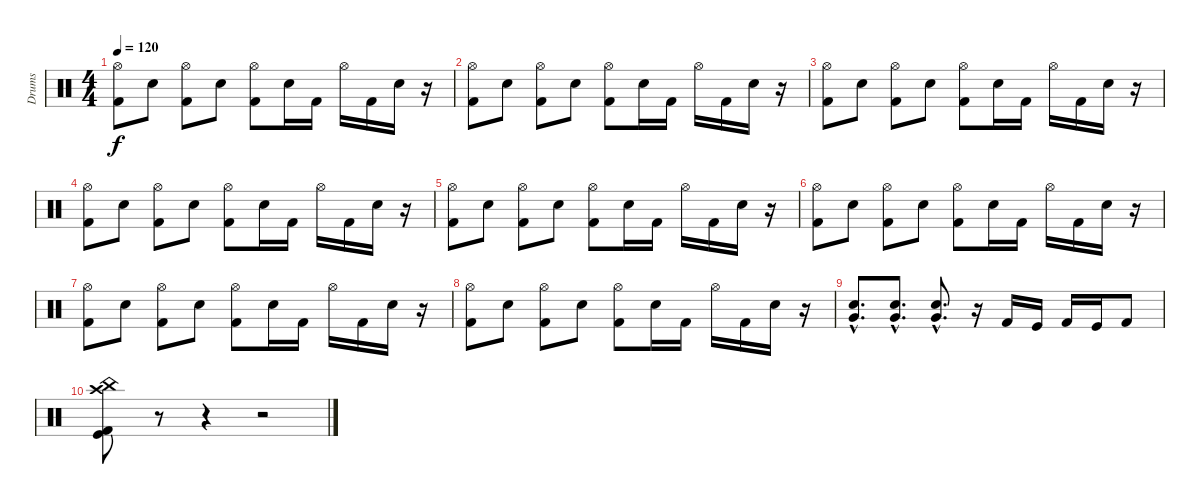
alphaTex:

\track ("Drums" "Drums") {instrument percussion}
\staff {score}
\articulation defaults
\ts (4 4)
\tempo 120
\clef neutral
\ks c
("Hi-Hat (open)" "Kick (hit) 2").8{dy f} "Snare (hit) 2".8 ("Hi-Hat (open)" "Kick (hit) 2").8 "Snare (hit) 2".8 ("Hi-Hat (open)" "Kick (hit) 2").8 "Snare (hit) 2".16 "Kick (hit) 2".16 "Hi-Hat (open)".16 "Kick (hit) 2".16 "Snare (hit) 2".16 r.16 |
("Hi-Hat (open)" "Kick (hit) 2").8 "Snare (hit) 2".8 ("Hi-Hat (open)" "Kick (hit) 2").8 "Snare (hit) 2".8 ("Hi-Hat (open)" "Kick (hit) 2").8 "Snare (hit) 2".16 "Kick (hit) 2".16 "Hi-Hat (open)".16 "Kick (hit) 2".16 "Snare (hit) 2".16 r.16 |
("Hi-Hat (open)" "Kick (hit) 2").8 "Snare (hit) 2".8 ("Hi-Hat (open)" "Kick (hit) 2").8 "Snare (hit) 2".8 ("Hi-Hat (open)" "Kick (hit) 2").8 "Snare (hit) 2".16 "Kick (hit) 2".16 "Hi-Hat (open)".16 "Kick (hit) 2".16 "Snare (hit) 2".16 r.16 |
("Hi-Hat (open)" "Kick (hit) 2").8 "Snare (hit) 2".8 ("Hi-Hat (open)" "Kick (hit) 2").8 "Snare (hit) 2".8 ("Hi-Hat (open)" "Kick (hit) 2").8 "Snare (hit) 2".16 "Kick (hit) 2".16 "Hi-Hat (open)".16 "Kick (hit) 2".16 "Snare (hit) 2".16 r.16 |
("Hi-Hat (open)" "Kick (hit) 2").8 "Snare (hit) 2".8 ("Hi-Hat (open)" "Kick (hit) 2").8 "Snare (hit) 2".8 ("Hi-Hat (open)" "Kick (hit) 2").8 "Snare (hit) 2".16 "Kick (hit) 2".16 "Hi-Hat (open)".16 "Kick (hit) 2".16 "Snare (hit) 2".16 r.16 |
("Hi-Hat (open)" "Kick (hit) 2").8 "Snare (hit) 2".8 ("Hi-Hat (open)" "Kick (hit) 2").8 "Snare (hit) 2".8 ("Hi-Hat (open)" "Kick (hit) 2").8 "Snare (hit) 2".16 "Kick (hit) 2".16 "Hi-Hat (open)".16 "Kick (hit) 2".16 "Snare (hit) 2".16 r.16 |
("Hi-Hat (open)" "Kick (hit) 2").8 "Snare (hit) 2".8 ("Hi-Hat (open)" "Kick (hit) 2").8 "Snare (hit) 2".8 ("Hi-Hat (open)" "Kick (hit) 2").8 "Snare (hit) 2".16 "Kick (hit) 2".16 "Hi-Hat (open)".16 "Kick (hit) 2".16 "Snare (hit) 2".16 r.16 |
("Hi-Hat (open)" "Kick (hit) 2").8 "Snare (hit) 2".8 ("Hi-Hat (open)" "Kick (hit) 2").8 "Snare (hit) 2".8 ("Hi-Hat (open)" "Kick (hit) 2").8 "Snare (hit) 2".16 "Kick (hit) 2".16 "Hi-Hat (open)".16 "Kick (hit) 2".16 "Snare (hit) 2".16 r.16 |
("Snare (hit) 2"{hac} "Very Low Tom (hit)"{hac}).8{d} ("Snare (hit) 2"{hac} "Very Low Tom (hit)"{hac}).8{d} ("Snare (hit) 2"{hac} "Very Low Tom (hit)"{hac}).8{d} r.16 "Kick (hit) 2".16 "Kick (hit)".16 "Kick (hit) 2".16 "Kick (hit)".16 "Kick (hit) 2".8 |
("Crash high (hit)" "China (hit)" "Kick (hit) 2" "Kick (hit)").8 r.8 r.4 r.2
